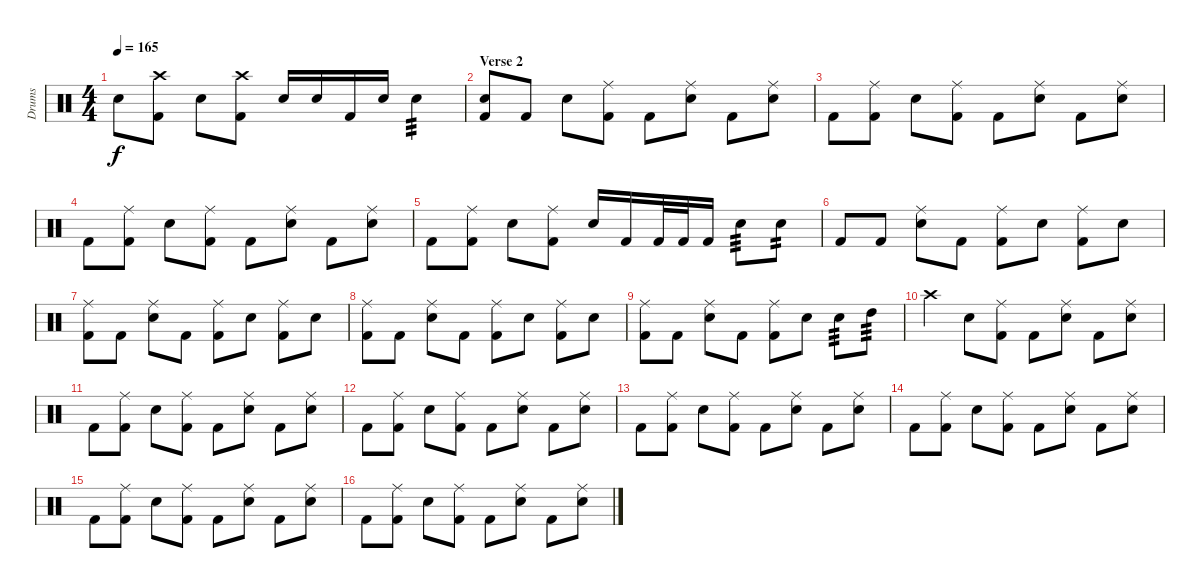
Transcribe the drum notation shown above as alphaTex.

\track ("Drums" "Drums") {instrument percussion}
\staff {score}
\articulation defaults
\ts (4 4)
\tempo 165
\clef neutral
\ks c "Electric Snare (hit)".8{dy f}
("Crash high (hit)" "Kick (hit) 2").8 "Electric Snare (hit)".8 ("Crash high (hit)" "Kick (hit) 2").8 "Electric Snare (hit)".16 "Electric Snare (hit)".16 "Kick (hit) 2".16 "Electric Snare (hit)".16 "Electric Snare (hit)".4{tp 3} |
\section ("" "Verse 2")
("Electric Snare (hit)" "Kick (hit) 2").8 "Kick (hit) 2".8 "Electric Snare (hit)".8 ("Ride (middle)" "Kick (hit) 2").8 "Kick (hit) 2".8 ("Ride (middle)" "Electric Snare (hit)").8 "Kick (hit) 2".8 ("Ride (middle)" "Electric Snare (hit)").8 |
"Kick (hit) 2".8 ("Ride (middle)" "Kick (hit) 2").8 "Electric Snare (hit)".8 ("Ride (middle)" "Kick (hit) 2").8 "Kick (hit) 2".8 ("Ride (middle)" "Electric Snare (hit)").8 "Kick (hit) 2".8 ("Ride (middle)" "Electric Snare (hit)").8 |
"Kick (hit) 2".8 ("Ride (middle)" "Kick (hit) 2").8 "Electric Snare (hit)".8 ("Ride (middle)" "Kick (hit) 2").8 "Kick (hit) 2".8 ("Ride (middle)" "Electric Snare (hit)").8 "Kick (hit) 2".8 ("Ride (middle)" "Electric Snare (hit)").8 |
"Kick (hit) 2".8 ("Ride (middle)" "Kick (hit) 2").8 "Electric Snare (hit)".8 ("Ride (middle)" "Kick (hit) 2").8 "Electric Snare (hit)".16 "Kick (hit) 2".16 "Kick (hit) 2".32 "Kick (hit) 2".32 "Kick (hit) 2".16 "Electric Snare (hit)".8{tp 3} "Electric Snare (hit)".8{tp 2} |
"Kick (hit) 2".8 "Kick (hit) 2".8 ("Ride (middle)" "Electric Snare (hit)").8 "Kick (hit) 2".8 ("Ride (middle)" "Kick (hit) 2").8 "Electric Snare (hit)".8 ("Ride (middle)" "Kick (hit) 2").8 "Electric Snare (hit)".8 |
("Ride (middle)" "Kick (hit) 2").8 "Kick (hit) 2".8 ("Ride (middle)" "Electric Snare (hit)").8 "Kick (hit) 2".8 ("Ride (middle)" "Kick (hit) 2").8 "Electric Snare (hit)".8 ("Ride (middle)" "Kick (hit) 2").8 "Electric Snare (hit)".8 |
("Ride (middle)" "Kick (hit) 2").8 "Kick (hit) 2".8 ("Ride (middle)" "Electric Snare (hit)").8 "Kick (hit) 2".8 ("Ride (middle)" "Kick (hit) 2").8 "Electric Snare (hit)".8 ("Ride (middle)" "Kick (hit) 2").8 "Electric Snare (hit)".8 |
("Ride (middle)" "Kick (hit) 2").8 "Kick (hit) 2".8 ("Ride (middle)" "Electric Snare (hit)").8 "Kick (hit) 2".8 ("Ride (middle)" "Kick (hit) 2").8 "Electric Snare (hit)".8 "Electric Snare (hit)".8{tp 3} "High Tom (hit)".8{tp 3} |
"Crash high (hit)".4 "Electric Snare (hit)".8 ("Ride (middle)" "Kick (hit) 2").8 "Kick (hit) 2".8 ("Ride (middle)" "Electric Snare (hit)").8 "Kick (hit) 2".8 ("Ride (middle)" "Electric Snare (hit)").8 |
"Kick (hit) 2".8 ("Ride (middle)" "Kick (hit) 2").8 "Electric Snare (hit)".8 ("Ride (middle)" "Kick (hit) 2").8 "Kick (hit) 2".8 ("Ride (middle)" "Electric Snare (hit)").8 "Kick (hit) 2".8 ("Ride (middle)" "Electric Snare (hit)").8 |
"Kick (hit) 2".8 ("Ride (middle)" "Kick (hit) 2").8 "Electric Snare (hit)".8 ("Ride (middle)" "Kick (hit) 2").8 "Kick (hit) 2".8 ("Ride (middle)" "Electric Snare (hit)").8 "Kick (hit) 2".8 ("Ride (middle)" "Electric Snare (hit)").8 |
"Kick (hit) 2".8 ("Ride (middle)" "Kick (hit) 2").8 "Electric Snare (hit)".8 ("Ride (middle)" "Kick (hit) 2").8 "Kick (hit) 2".8 ("Ride (middle)" "Electric Snare (hit)").8 "Kick (hit) 2".8 ("Ride (middle)" "Electric Snare (hit)").8 |
"Kick (hit) 2".8 ("Ride (middle)" "Kick (hit) 2").8 "Electric Snare (hit)".8 ("Ride (middle)" "Kick (hit) 2").8 "Kick (hit) 2".8 ("Ride (middle)" "Electric Snare (hit)").8 "Kick (hit) 2".8 ("Ride (middle)" "Electric Snare (hit)").8 |
"Kick (hit) 2".8 ("Ride (middle)" "Kick (hit) 2").8 "Electric Snare (hit)".8 ("Ride (middle)" "Kick (hit) 2").8 "Kick (hit) 2".8 ("Ride (middle)" "Electric Snare (hit)").8 "Kick (hit) 2".8 ("Ride (middle)" "Electric Snare (hit)").8 |
"Kick (hit) 2".8 ("Ride (middle)" "Kick (hit) 2").8 "Electric Snare (hit)".8 ("Ride (middle)" "Kick (hit) 2").8 "Kick (hit) 2".8 ("Ride (middle)" "Electric Snare (hit)").8 "Kick (hit) 2".8 ("Ride (middle)" "Electric Snare (hit)").8
